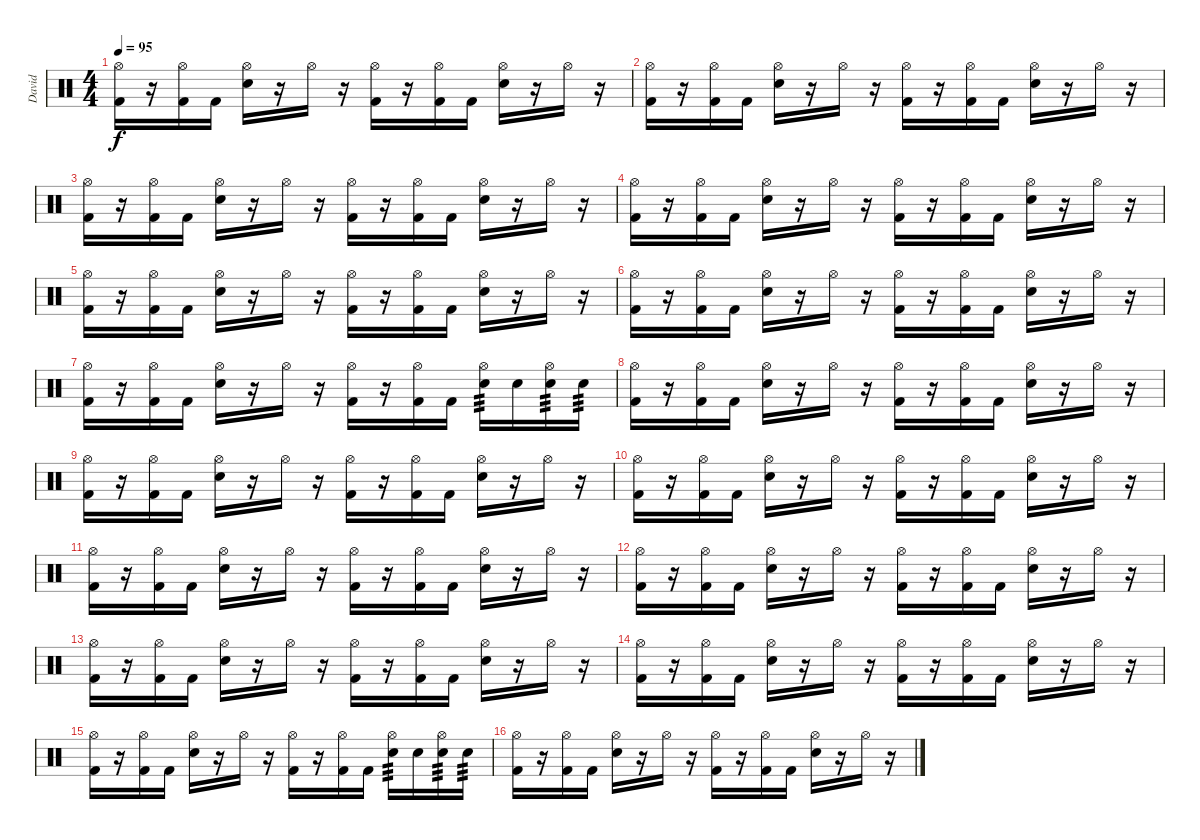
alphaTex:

\track ("David" "David") {instrument percussion}
\staff {score}
\articulation defaults
\ts (4 4)
\tempo 95
\clef neutral
\ks c
("Hi-Hat (open)" "Kick (hit) 2").16{dy f} r.16 ("Hi-Hat (open)" "Kick (hit) 2").16 "Kick (hit) 2".16 ("Hi-Hat (open)" "Snare (hit) 2").16 r.16 "Hi-Hat (open)".16 r.16 ("Hi-Hat (open)" "Kick (hit) 2").16 r.16 ("Hi-Hat (open)" "Kick (hit) 2").16 "Kick (hit) 2".16 ("Hi-Hat (open)" "Snare (hit) 2").16 r.16 "Hi-Hat (open)".16 r.16 |
("Hi-Hat (open)" "Kick (hit) 2").16 r.16 ("Hi-Hat (open)" "Kick (hit) 2").16 "Kick (hit) 2".16 ("Hi-Hat (open)" "Snare (hit) 2").16 r.16 "Hi-Hat (open)".16 r.16 ("Hi-Hat (open)" "Kick (hit) 2").16 r.16 ("Hi-Hat (open)" "Kick (hit) 2").16 "Kick (hit) 2".16 ("Hi-Hat (open)" "Snare (hit) 2").16 r.16 "Hi-Hat (open)".16 r.16 |
("Hi-Hat (open)" "Kick (hit) 2").16 r.16 ("Hi-Hat (open)" "Kick (hit) 2").16 "Kick (hit) 2".16 ("Hi-Hat (open)" "Snare (hit) 2").16 r.16 "Hi-Hat (open)".16 r.16 ("Hi-Hat (open)" "Kick (hit) 2").16 r.16 ("Hi-Hat (open)" "Kick (hit) 2").16 "Kick (hit) 2".16 ("Hi-Hat (open)" "Snare (hit) 2").16 r.16 "Hi-Hat (open)".16 r.16 |
("Hi-Hat (open)" "Kick (hit) 2").16 r.16 ("Hi-Hat (open)" "Kick (hit) 2").16 "Kick (hit) 2".16 ("Hi-Hat (open)" "Snare (hit) 2").16 r.16 "Hi-Hat (open)".16 r.16 ("Hi-Hat (open)" "Kick (hit) 2").16 r.16 ("Hi-Hat (open)" "Kick (hit) 2").16 "Kick (hit) 2".16 ("Hi-Hat (open)" "Snare (hit) 2").16 r.16 "Hi-Hat (open)".16 r.16 |
("Hi-Hat (open)" "Kick (hit) 2").16 r.16 ("Hi-Hat (open)" "Kick (hit) 2").16 "Kick (hit) 2".16 ("Hi-Hat (open)" "Snare (hit) 2").16 r.16 "Hi-Hat (open)".16 r.16 ("Hi-Hat (open)" "Kick (hit) 2").16 r.16 ("Hi-Hat (open)" "Kick (hit) 2").16 "Kick (hit) 2".16 ("Hi-Hat (open)" "Snare (hit) 2").16 r.16 "Hi-Hat (open)".16 r.16 |
("Hi-Hat (open)" "Kick (hit) 2").16 r.16 ("Hi-Hat (open)" "Kick (hit) 2").16 "Kick (hit) 2".16 ("Hi-Hat (open)" "Snare (hit) 2").16 r.16 "Hi-Hat (open)".16 r.16 ("Hi-Hat (open)" "Kick (hit) 2").16 r.16 ("Hi-Hat (open)" "Kick (hit) 2").16 "Kick (hit) 2".16 ("Hi-Hat (open)" "Snare (hit) 2").16 r.16 "Hi-Hat (open)".16 r.16 |
("Hi-Hat (open)" "Kick (hit) 2").16 r.16 ("Hi-Hat (open)" "Kick (hit) 2").16 "Kick (hit) 2".16 ("Hi-Hat (open)" "Snare (hit) 2").16 r.16 "Hi-Hat (open)".16 r.16 ("Hi-Hat (open)" "Kick (hit) 2").16 r.16 ("Hi-Hat (open)" "Kick (hit) 2").16 "Kick (hit) 2".16 ("Hi-Hat (open)" "Snare (hit) 2").16{tp 3} "Snare (hit) 2".16 ("Hi-Hat (open)" "Snare (hit) 2").16{tp 3} "Snare (hit) 2".16{tp 3} |
("Hi-Hat (open)" "Kick (hit) 2").16 r.16 ("Hi-Hat (open)" "Kick (hit) 2").16 "Kick (hit) 2".16 ("Hi-Hat (open)" "Snare (hit) 2").16 r.16 "Hi-Hat (open)".16 r.16 ("Hi-Hat (open)" "Kick (hit) 2").16 r.16 ("Hi-Hat (open)" "Kick (hit) 2").16 "Kick (hit) 2".16 ("Hi-Hat (open)" "Snare (hit) 2").16 r.16 "Hi-Hat (open)".16 r.16 |
("Hi-Hat (open)" "Kick (hit) 2").16 r.16 ("Hi-Hat (open)" "Kick (hit) 2").16 "Kick (hit) 2".16 ("Hi-Hat (open)" "Snare (hit) 2").16 r.16 "Hi-Hat (open)".16 r.16 ("Hi-Hat (open)" "Kick (hit) 2").16 r.16 ("Hi-Hat (open)" "Kick (hit) 2").16 "Kick (hit) 2".16 ("Hi-Hat (open)" "Snare (hit) 2").16 r.16 "Hi-Hat (open)".16 r.16 |
("Hi-Hat (open)" "Kick (hit) 2").16 r.16 ("Hi-Hat (open)" "Kick (hit) 2").16 "Kick (hit) 2".16 ("Hi-Hat (open)" "Snare (hit) 2").16 r.16 "Hi-Hat (open)".16 r.16 ("Hi-Hat (open)" "Kick (hit) 2").16 r.16 ("Hi-Hat (open)" "Kick (hit) 2").16 "Kick (hit) 2".16 ("Hi-Hat (open)" "Snare (hit) 2").16 r.16 "Hi-Hat (open)".16 r.16 |
("Hi-Hat (open)" "Kick (hit) 2").16 r.16 ("Hi-Hat (open)" "Kick (hit) 2").16 "Kick (hit) 2".16 ("Hi-Hat (open)" "Snare (hit) 2").16 r.16 "Hi-Hat (open)".16 r.16 ("Hi-Hat (open)" "Kick (hit) 2").16 r.16 ("Hi-Hat (open)" "Kick (hit) 2").16 "Kick (hit) 2".16 ("Hi-Hat (open)" "Snare (hit) 2").16 r.16 "Hi-Hat (open)".16 r.16 |
("Hi-Hat (open)" "Kick (hit) 2").16 r.16 ("Hi-Hat (open)" "Kick (hit) 2").16 "Kick (hit) 2".16 ("Hi-Hat (open)" "Snare (hit) 2").16 r.16 "Hi-Hat (open)".16 r.16 ("Hi-Hat (open)" "Kick (hit) 2").16 r.16 ("Hi-Hat (open)" "Kick (hit) 2").16 "Kick (hit) 2".16 ("Hi-Hat (open)" "Snare (hit) 2").16 r.16 "Hi-Hat (open)".16 r.16 |
("Hi-Hat (open)" "Kick (hit) 2").16 r.16 ("Hi-Hat (open)" "Kick (hit) 2").16 "Kick (hit) 2".16 ("Hi-Hat (open)" "Snare (hit) 2").16 r.16 "Hi-Hat (open)".16 r.16 ("Hi-Hat (open)" "Kick (hit) 2").16 r.16 ("Hi-Hat (open)" "Kick (hit) 2").16 "Kick (hit) 2".16 ("Hi-Hat (open)" "Snare (hit) 2").16 r.16 "Hi-Hat (open)".16 r.16 |
("Hi-Hat (open)" "Kick (hit) 2").16 r.16 ("Hi-Hat (open)" "Kick (hit) 2").16 "Kick (hit) 2".16 ("Hi-Hat (open)" "Snare (hit) 2").16 r.16 "Hi-Hat (open)".16 r.16 ("Hi-Hat (open)" "Kick (hit) 2").16 r.16 ("Hi-Hat (open)" "Kick (hit) 2").16 "Kick (hit) 2".16 ("Hi-Hat (open)" "Snare (hit) 2").16 r.16 "Hi-Hat (open)".16 r.16 |
("Hi-Hat (open)" "Kick (hit) 2").16 r.16 ("Hi-Hat (open)" "Kick (hit) 2").16 "Kick (hit) 2".16 ("Hi-Hat (open)" "Snare (hit) 2").16 r.16 "Hi-Hat (open)".16 r.16 ("Hi-Hat (open)" "Kick (hit) 2").16 r.16 ("Hi-Hat (open)" "Kick (hit) 2").16 "Kick (hit) 2".16 ("Hi-Hat (open)" "Snare (hit) 2").16{tp 3} "Snare (hit) 2".16 ("Hi-Hat (open)" "Snare (hit) 2").16{tp 3} "Snare (hit) 2".16{tp 3} |
("Hi-Hat (open)" "Kick (hit) 2").16 r.16 ("Hi-Hat (open)" "Kick (hit) 2").16 "Kick (hit) 2".16 ("Hi-Hat (open)" "Snare (hit) 2").16 r.16 "Hi-Hat (open)".16 r.16 ("Hi-Hat (open)" "Kick (hit) 2").16 r.16 ("Hi-Hat (open)" "Kick (hit) 2").16 "Kick (hit) 2".16 ("Hi-Hat (open)" "Snare (hit) 2").16 r.16 "Hi-Hat (open)".16 r.16
